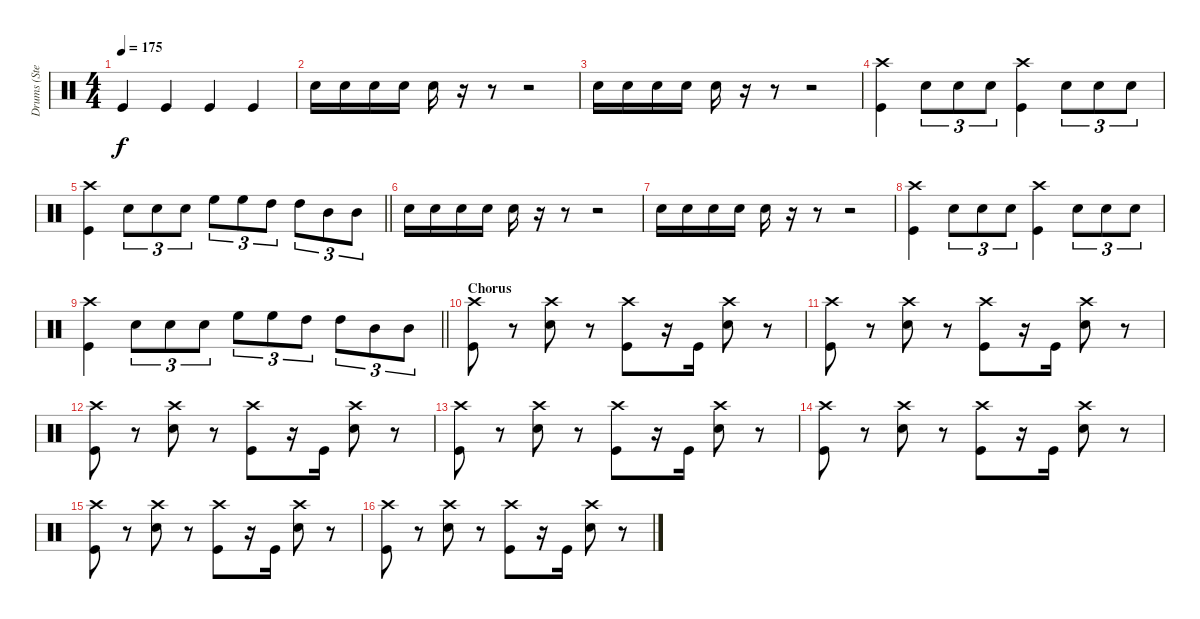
\track ("Drums (Stevo)" "Drums (Ste") {instrument percussion}
\staff {score}
\articulation defaults
\ts (4 4)
\tempo 175
\clef neutral
\ks c "Kick (hit)".4{dy f} "Kick (hit)".4 "Kick (hit)".4 "Kick (hit)".4
|
"Snare (hit) 2".16 "Snare (hit) 2".16 "Snare (hit) 2".16 "Snare (hit) 2".16 "Snare (hit) 2".16 r.16 r.8 r.2 |
"Snare (hit) 2".16 "Snare (hit) 2".16 "Snare (hit) 2".16 "Snare (hit) 2".16 "Snare (hit) 2".16 r.16 r.8 r.2 |
("Crash high (hit)" "Kick (hit)").4 "Snare (hit) 2".8{tu (3 2)} "Snare (hit) 2".8{tu (3 2)} "Snare (hit) 2".8{tu (3 2)} ("Crash high (hit)" "Kick (hit)").4 "Snare (hit) 2".8{tu (3 2)} "Snare (hit) 2".8{tu (3 2)} "Snare (hit) 2".8{tu (3 2)} |
\barLineRight lightlight
("Crash high (hit)" "Kick (hit)").4 "Snare (hit) 2".8{tu (3 2)} "Snare (hit) 2".8{tu (3 2)} "Snare (hit) 2".8{tu (3 2)} "High Floor Tom (hit)".8{tu (3 2)} "High Floor Tom (hit)".8{tu (3 2)} "High Tom (hit)".8{tu (3 2)} "High Tom (hit)".8{tu (3 2)} "Mid Tom (hit)".8{tu (3 2)} "Mid Tom (hit)".8{tu (3 2)} |
"Snare (hit) 2".16 "Snare (hit) 2".16 "Snare (hit) 2".16 "Snare (hit) 2".16 "Snare (hit) 2".16 r.16 r.8 r.2 |
"Snare (hit) 2".16 "Snare (hit) 2".16 "Snare (hit) 2".16 "Snare (hit) 2".16 "Snare (hit) 2".16 r.16 r.8 r.2 |
("Crash high (hit)" "Kick (hit)").4 "Snare (hit) 2".8{tu (3 2)} "Snare (hit) 2".8{tu (3 2)} "Snare (hit) 2".8{tu (3 2)} ("Crash high (hit)" "Kick (hit)").4 "Snare (hit) 2".8{tu (3 2)} "Snare (hit) 2".8{tu (3 2)} "Snare (hit) 2".8{tu (3 2)} |
\barLineRight lightlight
("Crash high (hit)" "Kick (hit)").4 "Snare (hit) 2".8{tu (3 2)} "Snare (hit) 2".8{tu (3 2)} "Snare (hit) 2".8{tu (3 2)} "High Floor Tom (hit)".8{tu (3 2)} "High Floor Tom (hit)".8{tu (3 2)} "High Tom (hit)".8{tu (3 2)} "High Tom (hit)".8{tu (3 2)} "Mid Tom (hit)".8{tu (3 2)} "Mid Tom (hit)".8{tu (3 2)} |
\section ("" "Chorus")
("Crash high (hit)" "Kick (hit)").8 r.8 ("Crash high (hit)" "Snare (hit) 2").8 r.8 ("Crash high (hit)" "Kick (hit)").8 r.16 "Kick (hit)".16 ("Crash high (hit)" "Snare (hit) 2").8 r.8 |
("Crash high (hit)" "Kick (hit)").8 r.8 ("Crash high (hit)" "Snare (hit) 2").8 r.8 ("Crash high (hit)" "Kick (hit)").8 r.16 "Kick (hit)".16 ("Crash high (hit)" "Snare (hit) 2").8 r.8 |
("Crash high (hit)" "Kick (hit)").8 r.8 ("Crash high (hit)" "Snare (hit) 2").8 r.8 ("Crash high (hit)" "Kick (hit)").8 r.16 "Kick (hit)".16 ("Crash high (hit)" "Snare (hit) 2").8 r.8 |
("Crash high (hit)" "Kick (hit)").8 r.8 ("Crash high (hit)" "Snare (hit) 2").8 r.8 ("Crash high (hit)" "Kick (hit)").8 r.16 "Kick (hit)".16 ("Crash high (hit)" "Snare (hit) 2").8 r.8 |
("Crash high (hit)" "Kick (hit)").8 r.8 ("Crash high (hit)" "Snare (hit) 2").8 r.8 ("Crash high (hit)" "Kick (hit)").8 r.16 "Kick (hit)".16 ("Crash high (hit)" "Snare (hit) 2").8 r.8 |
("Crash high (hit)" "Kick (hit)").8 r.8 ("Crash high (hit)" "Snare (hit) 2").8 r.8 ("Crash high (hit)" "Kick (hit)").8 r.16 "Kick (hit)".16 ("Crash high (hit)" "Snare (hit) 2").8 r.8 |
("Crash high (hit)" "Kick (hit)").8 r.8 ("Crash high (hit)" "Snare (hit) 2").8 r.8 ("Crash high (hit)" "Kick (hit)").8 r.16 "Kick (hit)".16 ("Crash high (hit)" "Snare (hit) 2").8 r.8
